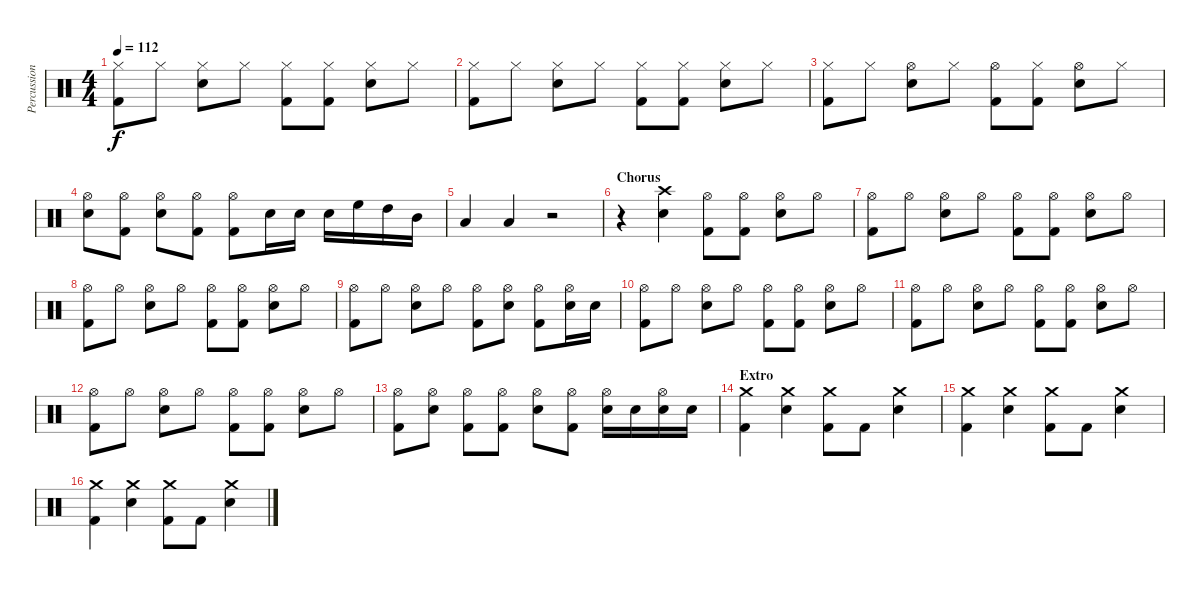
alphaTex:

\track ("Percussion" "Percussion") {instrument percussion}
\staff {score}
\articulation defaults
\ts (4 4)
\tempo 112
\clef neutral
\ks c
("Hi-Hat (closed)" "Kick (hit) 2").8{dy f} "Hi-Hat (closed)".8 ("Hi-Hat (closed)" "Snare (hit) 2").8 "Hi-Hat (closed)".8 ("Hi-Hat (closed)" "Kick (hit) 2").8 ("Hi-Hat (closed)" "Kick (hit) 2").8 ("Hi-Hat (closed)" "Snare (hit) 2").8 "Hi-Hat (closed)".8 |
("Hi-Hat (closed)" "Kick (hit) 2").8 "Hi-Hat (closed)".8 ("Hi-Hat (closed)" "Snare (hit) 2").8 "Hi-Hat (closed)".8 ("Hi-Hat (closed)" "Kick (hit) 2").8 ("Hi-Hat (closed)" "Kick (hit) 2").8 ("Hi-Hat (closed)" "Snare (hit) 2").8 "Hi-Hat (closed)".8 |
("Hi-Hat (closed)" "Kick (hit) 2").8 "Hi-Hat (closed)".8 ("Hi-Hat (open)" "Snare (hit) 2").8 "Hi-Hat (closed)".8 ("Hi-Hat (open)" "Kick (hit) 2").8 ("Hi-Hat (closed)" "Kick (hit) 2").8 ("Hi-Hat (open)" "Snare (hit) 2").8 "Hi-Hat (closed)".8 |
("Hi-Hat (open)" "Snare (hit) 2").8 ("Hi-Hat (open)" "Kick (hit) 2").8 ("Hi-Hat (open)" "Snare (hit) 2").8 ("Hi-Hat (open)" "Kick (hit) 2").8 ("Hi-Hat (open)" "Kick (hit) 2").8 "Snare (hit) 2".16 "Snare (hit) 2".16 "Snare (hit) 2".16 "High Floor Tom (hit)".16 "High Tom (hit)".16 "Mid Tom (hit)".16 |
"Low Tom (hit)".4 "Low Tom (hit)".4 r.2 |
\section ("" "Chorus")
r.4 ("Crash high (hit)" "Snare (hit) 2").4 ("Hi-Hat (open)" "Kick (hit) 2").8 ("Hi-Hat (open)" "Kick (hit) 2").8 ("Hi-Hat (open)" "Snare (hit) 2").8 "Hi-Hat (open)".8 |
("Hi-Hat (open)" "Kick (hit) 2").8 "Hi-Hat (open)".8 ("Hi-Hat (open)" "Snare (hit) 2").8 "Hi-Hat (open)".8 ("Hi-Hat (open)" "Kick (hit) 2").8 ("Hi-Hat (open)" "Kick (hit) 2").8 ("Hi-Hat (open)" "Snare (hit) 2").8 "Hi-Hat (open)".8 |
("Hi-Hat (open)" "Kick (hit) 2").8 "Hi-Hat (open)".8 ("Hi-Hat (open)" "Snare (hit) 2").8 "Hi-Hat (open)".8 ("Hi-Hat (open)" "Kick (hit) 2").8 ("Hi-Hat (open)" "Kick (hit) 2").8 ("Hi-Hat (open)" "Snare (hit) 2").8 "Hi-Hat (open)".8 |
("Hi-Hat (open)" "Kick (hit) 2").8 "Hi-Hat (open)".8 ("Hi-Hat (open)" "Snare (hit) 2").8 "Hi-Hat (open)".8 ("Hi-Hat (open)" "Kick (hit) 2").8 ("Hi-Hat (open)" "Snare (hit) 2").8 ("Hi-Hat (open)" "Kick (hit) 2").8 ("Hi-Hat (open)" "Snare (hit) 2").16 "Snare (hit) 2".16 |
("Hi-Hat (open)" "Kick (hit) 2").8 "Hi-Hat (open)".8 ("Hi-Hat (open)" "Snare (hit) 2").8 "Hi-Hat (open)".8 ("Hi-Hat (open)" "Kick (hit) 2").8 ("Hi-Hat (open)" "Kick (hit) 2").8 ("Hi-Hat (open)" "Snare (hit) 2").8 "Hi-Hat (open)".8 |
("Hi-Hat (open)" "Kick (hit) 2").8 "Hi-Hat (open)".8 ("Hi-Hat (open)" "Snare (hit) 2").8 "Hi-Hat (open)".8 ("Hi-Hat (open)" "Kick (hit) 2").8 ("Hi-Hat (open)" "Kick (hit) 2").8 ("Hi-Hat (open)" "Snare (hit) 2").8 "Hi-Hat (open)".8 |
("Hi-Hat (open)" "Kick (hit) 2").8 "Hi-Hat (open)".8 ("Hi-Hat (open)" "Snare (hit) 2").8 "Hi-Hat (open)".8 ("Hi-Hat (open)" "Kick (hit) 2").8 ("Hi-Hat (open)" "Kick (hit) 2").8 ("Hi-Hat (open)" "Snare (hit) 2").8 "Hi-Hat (open)".8 |
("Hi-Hat (open)" "Kick (hit) 2").8 ("Hi-Hat (open)" "Snare (hit) 2").8 ("Hi-Hat (open)" "Kick (hit) 2").8 ("Hi-Hat (open)" "Kick (hit) 2").8 ("Hi-Hat (open)" "Snare (hit) 2").8 ("Hi-Hat (open)" "Kick (hit) 2").8 ("Hi-Hat (open)" "Snare (hit) 2").16 "Snare (hit) 2".16 ("Hi-Hat (open)" "Snare (hit) 2").16 "Snare (hit) 2".16 |
\section ("" "Extro")
("Crash medium (hit)" "Kick (hit) 2").4 ("Crash medium (hit)" "Snare (hit) 2").4 ("Crash medium (hit)" "Kick (hit) 2").8 "Kick (hit) 2".8 ("Crash medium (hit)" "Snare (hit) 2").4 |
("Crash medium (hit)" "Kick (hit) 2").4 ("Crash medium (hit)" "Snare (hit) 2").4 ("Crash medium (hit)" "Kick (hit) 2").8 "Kick (hit) 2".8 ("Crash medium (hit)" "Snare (hit) 2").4 |
("Crash medium (hit)" "Kick (hit) 2").4 ("Crash medium (hit)" "Snare (hit) 2").4 ("Crash medium (hit)" "Kick (hit) 2").8 "Kick (hit) 2".8 ("Crash medium (hit)" "Snare (hit) 2").4
